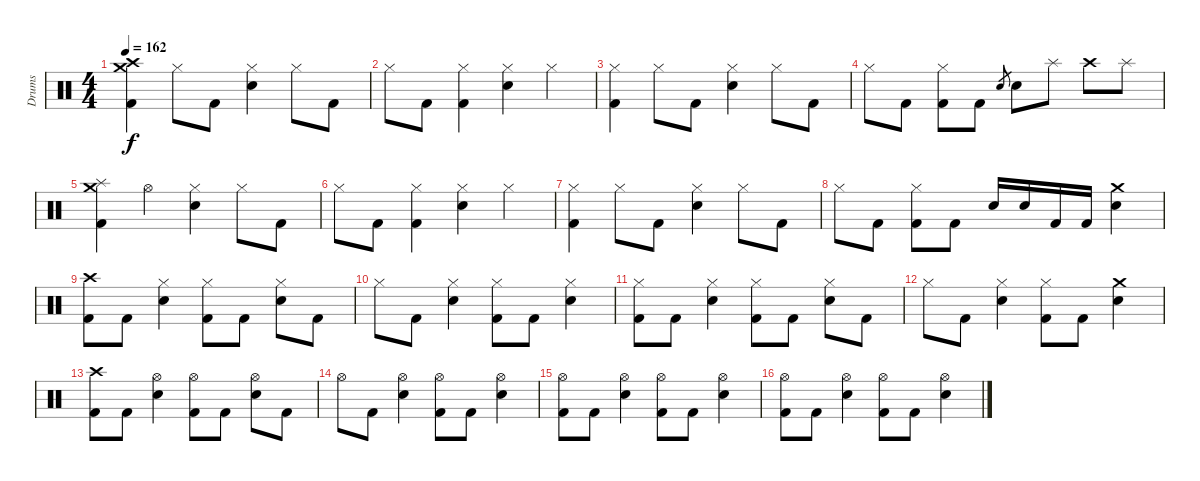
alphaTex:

\track ("Drums" "Drums") {instrument percussion}
\staff {score}
\articulation defaults
\ts (4 4)
\tempo 162
\clef neutral
\ks c
("Crash medium (hit)" "Crash high (hit)" "Kick (hit) 2").4{dy f} "Hi-Hat (closed)".8 "Kick (hit) 2".8 ("Hi-Hat (closed)" "Electric Snare (hit)").4 "Hi-Hat (closed)".8 "Kick (hit) 2".8 |
"Hi-Hat (closed)".8 "Kick (hit) 2".8 ("Hi-Hat (closed)" "Kick (hit) 2").4 ("Hi-Hat (closed)" "Electric Snare (hit)").4 "Hi-Hat (closed)".4 |
("Hi-Hat (closed)" "Kick (hit) 2").4 "Hi-Hat (closed)".8 "Kick (hit) 2".8 ("Hi-Hat (closed)" "Electric Snare (hit)").4 "Hi-Hat (closed)".8 "Kick (hit) 2".8 |
"Hi-Hat (closed)".8 "Kick (hit) 2".8 ("Hi-Hat (closed)" "Kick (hit) 2").8 "Kick (hit) 2".8 "Electric Snare (hit)".8{gr} "Electric Snare (hit)".8 "Splash (hit)".8 "Crash high (hit)".8 "Splash (hit)".8 |
("Crash medium (hit)" "Splash (hit)" "Kick (hit) 2").4 "Hi-Hat (open)".4 ("Hi-Hat (closed)" "Electric Snare (hit)").4 "Hi-Hat (closed)".8 "Kick (hit) 2".8 |
"Hi-Hat (closed)".8 "Kick (hit) 2".8 ("Hi-Hat (closed)" "Kick (hit) 2").4 ("Hi-Hat (closed)" "Electric Snare (hit)").4 "Hi-Hat (closed)".4 |
("Hi-Hat (closed)" "Kick (hit) 2").4 "Hi-Hat (closed)".8 "Kick (hit) 2".8 ("Hi-Hat (closed)" "Electric Snare (hit)").4 "Hi-Hat (closed)".8 "Kick (hit) 2".8 |
"Hi-Hat (closed)".8 "Kick (hit) 2".8 ("Hi-Hat (closed)" "Kick (hit) 2").8 "Kick (hit) 2".8 "Electric Snare (hit)".16 "Electric Snare (hit)".16 "Kick (hit) 2".16 "Kick (hit) 2".16 ("Crash medium (hit)" "Electric Snare (hit)").4 |
("Crash high (hit)" "Kick (hit) 2").8 "Kick (hit) 2".8 ("Hi-Hat (closed)" "Electric Snare (hit)").4 ("Hi-Hat (closed)" "Kick (hit) 2").8 "Kick (hit) 2".8 ("Hi-Hat (closed)" "Electric Snare (hit)").8 "Kick (hit) 2".8 |
"Hi-Hat (closed)".8 "Kick (hit) 2".8 ("Hi-Hat (closed)" "Electric Snare (hit)").4 ("Hi-Hat (closed)" "Kick (hit) 2").8 "Kick (hit) 2".8 ("Hi-Hat (closed)" "Electric Snare (hit)").4 |
("Hi-Hat (closed)" "Kick (hit) 2").8 "Kick (hit) 2".8 ("Hi-Hat (closed)" "Electric Snare (hit)").4 ("Hi-Hat (closed)" "Kick (hit) 2").8 "Kick (hit) 2".8 ("Hi-Hat (closed)" "Electric Snare (hit)").8 "Kick (hit) 2".8 |
"Hi-Hat (closed)".8 "Kick (hit) 2".8 ("Hi-Hat (closed)" "Electric Snare (hit)").4 ("Hi-Hat (closed)" "Kick (hit) 2").8 "Kick (hit) 2".8 ("Crash medium (hit)" "Electric Snare (hit)").4 |
("Crash high (hit)" "Kick (hit) 2").8 "Kick (hit) 2".8 ("Hi-Hat (open)" "Electric Snare (hit)").4 ("Hi-Hat (open)" "Kick (hit) 2").8 "Kick (hit) 2".8 ("Hi-Hat (open)" "Electric Snare (hit)").8 "Kick (hit) 2".8 |
"Hi-Hat (open)".8 "Kick (hit) 2".8 ("Hi-Hat (open)" "Electric Snare (hit)").4 ("Hi-Hat (open)" "Kick (hit) 2").8 "Kick (hit) 2".8 ("Hi-Hat (open)" "Electric Snare (hit)").4 |
("Hi-Hat (open)" "Kick (hit) 2").8 "Kick (hit) 2".8 ("Hi-Hat (open)" "Electric Snare (hit)").4 ("Hi-Hat (open)" "Kick (hit) 2").8 "Kick (hit) 2".8 ("Hi-Hat (open)" "Electric Snare (hit)").4 |
("Hi-Hat (open)" "Kick (hit) 2").8 "Kick (hit) 2".8 ("Hi-Hat (open)" "Electric Snare (hit)").4 ("Hi-Hat (open)" "Kick (hit) 2").8 "Kick (hit) 2".8 ("Hi-Hat (open)" "Electric Snare (hit)").4
